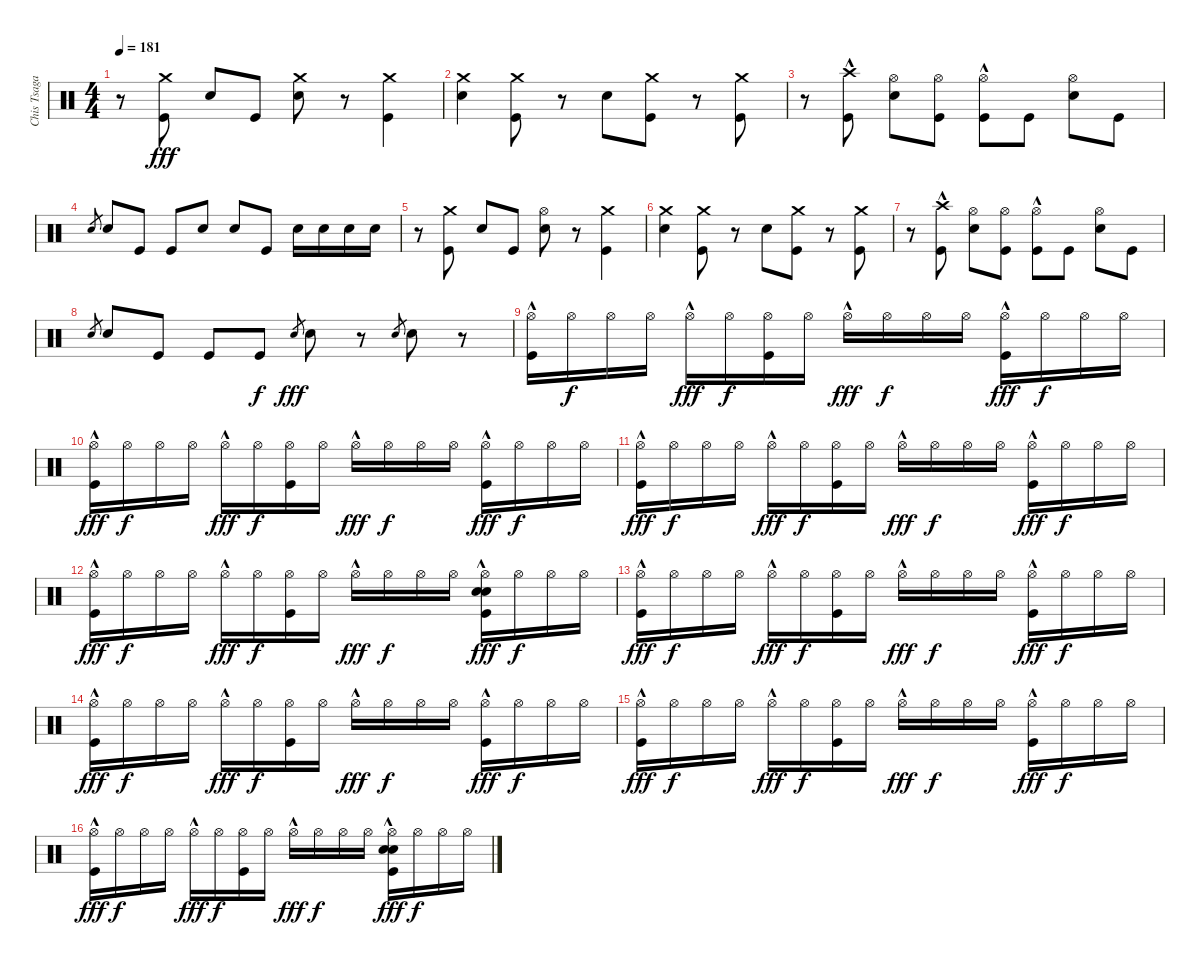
\track ("Chis Tsagakis" "Chis Tsaga") {instrument percussion}
\staff {score}
\articulation defaults
\ts (4 4)
\tempo 181
\clef neutral
\ks c
r.8{dy fff} ("Crash medium (hit)" "Kick (hit)").8 "Electric Snare (hit)".8 "Kick (hit)".8 ("Crash medium (hit)" "Electric Snare (hit)").8 r.8 ("Crash medium (hit)" "Kick (hit)").4 |
("Crash medium (hit)" "Electric Snare (hit)").4 ("Crash medium (hit)" "Kick (hit)").8 r.8 "Electric Snare (hit)".8 ("Crash medium (hit)" "Kick (hit)").8 r.8 ("Crash medium (hit)" "Kick (hit)").8 |
r.8 ("Crash high (hit)"{hac} "Kick (hit)").8 ("Hi-Hat (open)" "Electric Snare (hit)").8 ("Hi-Hat (open)" "Kick (hit)").8 ("Hi-Hat (open)"{hac} "Kick (hit)").8 "Kick (hit)".8 ("Hi-Hat (open)" "Electric Snare (hit)").8 "Kick (hit)".8 |
"Electric Snare (hit)".8{gr} "Electric Snare (hit)".8 "Kick (hit)".8 "Kick (hit)".8 "Electric Snare (hit)".8 "Electric Snare (hit)".8 "Kick (hit)".8 "Electric Snare (hit)".16 "Electric Snare (hit)".16 "Electric Snare (hit)".16 "Electric Snare (hit)".16 |
r.8 ("Crash medium (hit)" "Kick (hit)").8 "Electric Snare (hit)".8 "Kick (hit)".8 ("Hi-Hat (open)" "Electric Snare (hit)").8 r.8 ("Crash medium (hit)" "Kick (hit)").4 |
("Crash medium (hit)" "Electric Snare (hit)").4 ("Crash medium (hit)" "Kick (hit)").8 r.8 "Electric Snare (hit)".8 ("Crash medium (hit)" "Kick (hit)").8 r.8 ("Crash medium (hit)" "Kick (hit)").8 |
r.8 ("Crash high (hit)"{hac} "Kick (hit)").8 ("Hi-Hat (open)" "Electric Snare (hit)").8 ("Hi-Hat (open)" "Kick (hit)").8 ("Hi-Hat (open)"{hac} "Kick (hit)").8 "Kick (hit)".8 ("Hi-Hat (open)" "Electric Snare (hit)").8 "Kick (hit)".8 |
"Electric Snare (hit)".8{gr} "Electric Snare (hit)".8 "Kick (hit)".8 "Kick (hit)".8 "Kick (hit)".8{dy f} "Electric Snare (hit)".8{gr dy fff} "Electric Snare (hit)".8 r.8 "Electric Snare (hit)".8{gr} "Electric Snare (hit)".8 r.8 |
("Hi-Hat (open)"{hac} "Kick (hit)").16{volume 12} "Hi-Hat (open)".16{dy f} "Hi-Hat (open)".16 "Hi-Hat (open)".16 "Hi-Hat (open)"{hac}.16{dy fff} "Hi-Hat (open)".16{dy f} ("Hi-Hat (open)" "Kick (hit)").16 "Hi-Hat (open)".16 "Hi-Hat (open)"{hac}.16{dy fff} "Hi-Hat (open)".16{dy f} "Hi-Hat (open)".16 "Hi-Hat (open)".16 ("Hi-Hat (open)"{hac} "Kick (hit)").16{dy fff} "Hi-Hat (open)".16{dy f} "Hi-Hat (open)".16 "Hi-Hat (open)".16 |
("Hi-Hat (open)"{hac} "Kick (hit)").16{dy fff} "Hi-Hat (open)".16{dy f} "Hi-Hat (open)".16 "Hi-Hat (open)".16 "Hi-Hat (open)"{hac}.16{dy fff} "Hi-Hat (open)".16{dy f} ("Hi-Hat (open)" "Kick (hit)").16 "Hi-Hat (open)".16 "Hi-Hat (open)"{hac}.16{dy fff} "Hi-Hat (open)".16{dy f} "Hi-Hat (open)".16 "Hi-Hat (open)".16 ("Hi-Hat (open)"{hac} "Kick (hit)").16{dy fff} "Hi-Hat (open)".16{dy f} "Hi-Hat (open)".16 "Hi-Hat (open)".16 |
("Hi-Hat (open)"{hac} "Kick (hit)").16{dy fff volume 16} "Hi-Hat (open)".16{dy f} "Hi-Hat (open)".16 "Hi-Hat (open)".16 "Hi-Hat (open)"{hac}.16{dy fff} "Hi-Hat (open)".16{dy f} ("Hi-Hat (open)" "Kick (hit)").16 "Hi-Hat (open)".16 "Hi-Hat (open)"{hac}.16{dy fff} "Hi-Hat (open)".16{dy f} "Hi-Hat (open)".16 "Hi-Hat (open)".16 ("Hi-Hat (open)"{hac} "Kick (hit)").16{dy fff} "Hi-Hat (open)".16{dy f} "Hi-Hat (open)".16 "Hi-Hat (open)".16 |
("Hi-Hat (open)"{hac} "Kick (hit)").16{dy fff} "Hi-Hat (open)".16{dy f} "Hi-Hat (open)".16 "Hi-Hat (open)".16 "Hi-Hat (open)"{hac}.16{dy fff} "Hi-Hat (open)".16{dy f} ("Hi-Hat (open)" "Kick (hit)").16 "Hi-Hat (open)".16 "Hi-Hat (open)"{hac}.16{dy fff} "Hi-Hat (open)".16{dy f} "Hi-Hat (open)".16 "Hi-Hat (open)".16 ("Hi-Hat (open)"{hac} "Electric Snare (hit)" "Electric Snare (hit)" "Kick (hit)").16{dy fff} "Hi-Hat (open)".16{dy f} "Hi-Hat (open)".16 "Hi-Hat (open)".16 |
("Hi-Hat (open)"{hac} "Kick (hit)").16{dy fff volume 12} "Hi-Hat (open)".16{dy f} "Hi-Hat (open)".16 "Hi-Hat (open)".16 "Hi-Hat (open)"{hac}.16{dy fff} "Hi-Hat (open)".16{dy f} ("Hi-Hat (open)" "Kick (hit)").16 "Hi-Hat (open)".16 "Hi-Hat (open)"{hac}.16{dy fff} "Hi-Hat (open)".16{dy f} "Hi-Hat (open)".16 "Hi-Hat (open)".16 ("Hi-Hat (open)"{hac} "Kick (hit)").16{dy fff} "Hi-Hat (open)".16{dy f} "Hi-Hat (open)".16 "Hi-Hat (open)".16 |
("Hi-Hat (open)"{hac} "Kick (hit)").16{dy fff} "Hi-Hat (open)".16{dy f} "Hi-Hat (open)".16 "Hi-Hat (open)".16 "Hi-Hat (open)"{hac}.16{dy fff} "Hi-Hat (open)".16{dy f} ("Hi-Hat (open)" "Kick (hit)").16 "Hi-Hat (open)".16 "Hi-Hat (open)"{hac}.16{dy fff} "Hi-Hat (open)".16{dy f} "Hi-Hat (open)".16 "Hi-Hat (open)".16 ("Hi-Hat (open)"{hac} "Kick (hit)").16{dy fff} "Hi-Hat (open)".16{dy f} "Hi-Hat (open)".16 "Hi-Hat (open)".16 |
("Hi-Hat (open)"{hac} "Kick (hit)").16{dy fff volume 16} "Hi-Hat (open)".16{dy f} "Hi-Hat (open)".16 "Hi-Hat (open)".16 "Hi-Hat (open)"{hac}.16{dy fff} "Hi-Hat (open)".16{dy f} ("Hi-Hat (open)" "Kick (hit)").16 "Hi-Hat (open)".16 "Hi-Hat (open)"{hac}.16{dy fff} "Hi-Hat (open)".16{dy f} "Hi-Hat (open)".16 "Hi-Hat (open)".16 ("Hi-Hat (open)"{hac} "Kick (hit)").16{dy fff} "Hi-Hat (open)".16{dy f} "Hi-Hat (open)".16 "Hi-Hat (open)".16 |
("Hi-Hat (open)"{hac} "Kick (hit)").16{dy fff} "Hi-Hat (open)".16{dy f} "Hi-Hat (open)".16 "Hi-Hat (open)".16 "Hi-Hat (open)"{hac}.16{dy fff} "Hi-Hat (open)".16{dy f} ("Hi-Hat (open)" "Kick (hit)").16 "Hi-Hat (open)".16 "Hi-Hat (open)"{hac}.16{dy fff} "Hi-Hat (open)".16{dy f} "Hi-Hat (open)".16 "Hi-Hat (open)".16 ("Hi-Hat (open)"{hac} "Electric Snare (hit)" "Electric Snare (hit)" "Kick (hit)").16{dy fff} "Hi-Hat (open)".16{dy f} "Hi-Hat (open)".16 "Hi-Hat (open)".16
